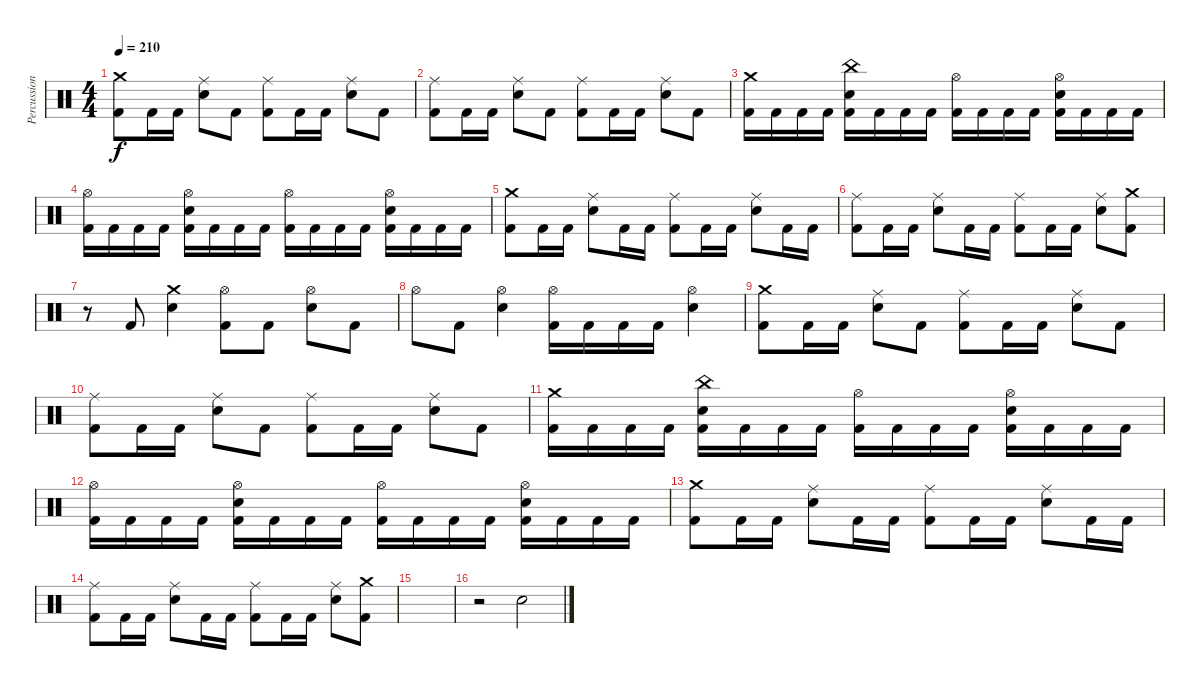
\track ("Percussion" "Percussion") {instrument percussion}
\staff {score}
\articulation defaults
\ts (4 4)
\tempo 210
\clef neutral
\ks c
("Crash medium (hit)" "Kick (hit) 2").8{dy f} "Kick (hit) 2".16 "Kick (hit) 2".16 ("Ride (middle)" "Electric Snare (hit)").8 "Kick (hit) 2".8 ("Ride (middle)" "Kick (hit) 2").8 "Kick (hit) 2".16 "Kick (hit) 2".16 ("Ride (middle)" "Electric Snare (hit)").8 "Kick (hit) 2".8 |
("Ride (middle)" "Kick (hit) 2").8 "Kick (hit) 2".16 "Kick (hit) 2".16 ("Ride (middle)" "Electric Snare (hit)").8 "Kick (hit) 2".8 ("Ride (middle)" "Kick (hit) 2").8 "Kick (hit) 2".16 "Kick (hit) 2".16 ("Ride (middle)" "Electric Snare (hit)").8 "Kick (hit) 2".8 |
("Crash medium (hit)" "Kick (hit) 2").16 "Kick (hit) 2".16 "Kick (hit) 2".16 "Kick (hit) 2".16 ("China (hit)" "Electric Snare (hit)" "Kick (hit) 2").16 "Kick (hit) 2".16 "Kick (hit) 2".16 "Kick (hit) 2".16 ("Hi-Hat (open)" "Kick (hit) 2").16 "Kick (hit) 2".16 "Kick (hit) 2".16 "Kick (hit) 2".16 ("Hi-Hat (open)" "Electric Snare (hit)" "Kick (hit) 2").16 "Kick (hit) 2".16 "Kick (hit) 2".16 "Kick (hit) 2".16 |
("Hi-Hat (open)" "Kick (hit) 2").16 "Kick (hit) 2".16 "Kick (hit) 2".16 "Kick (hit) 2".16 ("Hi-Hat (open)" "Electric Snare (hit)" "Kick (hit) 2").16 "Kick (hit) 2".16 "Kick (hit) 2".16 "Kick (hit) 2".16 ("Hi-Hat (open)" "Kick (hit) 2").16 "Kick (hit) 2".16 "Kick (hit) 2".16 "Kick (hit) 2".16 ("Hi-Hat (open)" "Electric Snare (hit)" "Kick (hit) 2").16 "Kick (hit) 2".16 "Kick (hit) 2".16 "Kick (hit) 2".16 |
("Crash medium (hit)" "Kick (hit) 2").8 "Kick (hit) 2".16 "Kick (hit) 2".16 ("Ride (middle)" "Electric Snare (hit)").8 "Kick (hit) 2".16 "Kick (hit) 2".16 ("Ride (middle)" "Kick (hit) 2").8 "Kick (hit) 2".16 "Kick (hit) 2".16 ("Ride (middle)" "Electric Snare (hit)").8 "Kick (hit) 2".16 "Kick (hit) 2".16 |
("Ride (middle)" "Kick (hit) 2").8 "Kick (hit) 2".16 "Kick (hit) 2".16 ("Ride (middle)" "Electric Snare (hit)").8 "Kick (hit) 2".16 "Kick (hit) 2".16 ("Ride (middle)" "Kick (hit) 2").8 "Kick (hit) 2".16 "Kick (hit) 2".16 ("Ride (middle)" "Electric Snare (hit)").8 ("Crash medium (hit)" "Kick (hit) 2").8 |
r.8 "Kick (hit) 2".8 ("Crash medium (hit)" "Electric Snare (hit)").4 ("Hi-Hat (open)" "Kick (hit) 2").8 "Kick (hit) 2".8 ("Hi-Hat (open)" "Electric Snare (hit)").8 "Kick (hit) 2".8 |
"Hi-Hat (open)".8 "Kick (hit) 2".8 ("Hi-Hat (open)" "Electric Snare (hit)").4 ("Hi-Hat (open)" "Kick (hit) 2").16 "Kick (hit) 2".16 "Kick (hit) 2".16 "Kick (hit) 2".16 ("Hi-Hat (open)" "Electric Snare (hit)").4 |
("Crash medium (hit)" "Kick (hit) 2").8 "Kick (hit) 2".16 "Kick (hit) 2".16 ("Ride (middle)" "Electric Snare (hit)").8 "Kick (hit) 2".8 ("Ride (middle)" "Kick (hit) 2").8 "Kick (hit) 2".16 "Kick (hit) 2".16 ("Ride (middle)" "Electric Snare (hit)").8 "Kick (hit) 2".8 |
("Ride (middle)" "Kick (hit) 2").8 "Kick (hit) 2".16 "Kick (hit) 2".16 ("Ride (middle)" "Electric Snare (hit)").8 "Kick (hit) 2".8 ("Ride (middle)" "Kick (hit) 2").8 "Kick (hit) 2".16 "Kick (hit) 2".16 ("Ride (middle)" "Electric Snare (hit)").8 "Kick (hit) 2".8 |
("Crash medium (hit)" "Kick (hit) 2").16 "Kick (hit) 2".16 "Kick (hit) 2".16 "Kick (hit) 2".16 ("China (hit)" "Electric Snare (hit)" "Kick (hit) 2").16 "Kick (hit) 2".16 "Kick (hit) 2".16 "Kick (hit) 2".16 ("Hi-Hat (open)" "Kick (hit) 2").16 "Kick (hit) 2".16 "Kick (hit) 2".16 "Kick (hit) 2".16 ("Hi-Hat (open)" "Electric Snare (hit)" "Kick (hit) 2").16 "Kick (hit) 2".16 "Kick (hit) 2".16 "Kick (hit) 2".16 |
("Hi-Hat (open)" "Kick (hit) 2").16 "Kick (hit) 2".16 "Kick (hit) 2".16 "Kick (hit) 2".16 ("Hi-Hat (open)" "Electric Snare (hit)" "Kick (hit) 2").16 "Kick (hit) 2".16 "Kick (hit) 2".16 "Kick (hit) 2".16 ("Hi-Hat (open)" "Kick (hit) 2").16 "Kick (hit) 2".16 "Kick (hit) 2".16 "Kick (hit) 2".16 ("Hi-Hat (open)" "Electric Snare (hit)" "Kick (hit) 2").16 "Kick (hit) 2".16 "Kick (hit) 2".16 "Kick (hit) 2".16 |
("Crash medium (hit)" "Kick (hit) 2").8 "Kick (hit) 2".16 "Kick (hit) 2".16 ("Ride (middle)" "Electric Snare (hit)").8 "Kick (hit) 2".16 "Kick (hit) 2".16 ("Ride (middle)" "Kick (hit) 2").8 "Kick (hit) 2".16 "Kick (hit) 2".16 ("Ride (middle)" "Electric Snare (hit)").8 "Kick (hit) 2".16 "Kick (hit) 2".16 |
("Ride (middle)" "Kick (hit) 2").8 "Kick (hit) 2".16 "Kick (hit) 2".16 ("Ride (middle)" "Electric Snare (hit)").8 "Kick (hit) 2".16 "Kick (hit) 2".16 ("Ride (middle)" "Kick (hit) 2").8 "Kick (hit) 2".16 "Kick (hit) 2".16 ("Ride (middle)" "Electric Snare (hit)").8 ("Crash medium (hit)" "Kick (hit) 2").8 |
|
r.2 "Electric Snare (hit)".2
